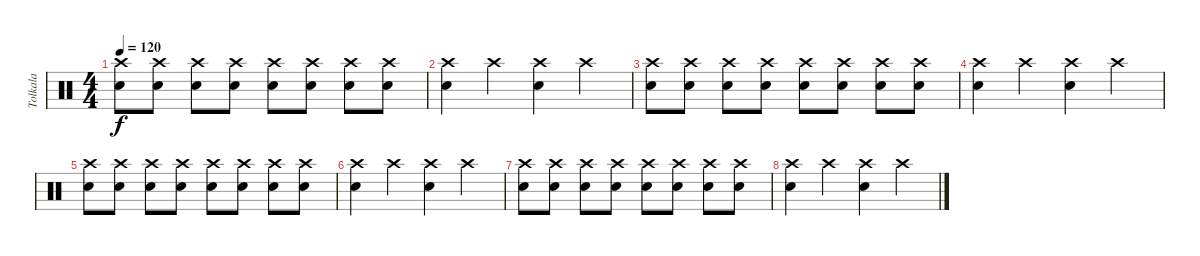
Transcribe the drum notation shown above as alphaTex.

\track ("Tolkala" "Tolkala") {instrument percussion}
\staff {score}
\articulation defaults
\ts (4 4)
\tempo 120
\clef neutral
\ks c
("Crash high (hit)" "Snare (hit) 2").8{dy f} ("Crash high (hit)" "Snare (hit) 2").8 ("Crash high (hit)" "Snare (hit) 2").8 ("Crash high (hit)" "Snare (hit) 2").8 ("Crash high (hit)" "Snare (hit) 2").8 ("Crash high (hit)" "Snare (hit) 2").8 ("Crash high (hit)" "Snare (hit) 2").8 ("Crash high (hit)" "Snare (hit) 2").8 |
("Crash high (hit)" "Snare (hit) 2").4 "Crash high (hit)".4 ("Crash high (hit)" "Snare (hit) 2").4 "Crash high (hit)".4 |
("Crash high (hit)" "Snare (hit) 2").8 ("Crash high (hit)" "Snare (hit) 2").8 ("Crash high (hit)" "Snare (hit) 2").8 ("Crash high (hit)" "Snare (hit) 2").8 ("Crash high (hit)" "Snare (hit) 2").8 ("Crash high (hit)" "Snare (hit) 2").8 ("Crash high (hit)" "Snare (hit) 2").8 ("Crash high (hit)" "Snare (hit) 2").8 |
("Crash high (hit)" "Snare (hit) 2").4 "Crash high (hit)".4 ("Crash high (hit)" "Snare (hit) 2").4 "Crash high (hit)".4 |
("Crash high (hit)" "Snare (hit) 2").8 ("Crash high (hit)" "Snare (hit) 2").8 ("Crash high (hit)" "Snare (hit) 2").8 ("Crash high (hit)" "Snare (hit) 2").8 ("Crash high (hit)" "Snare (hit) 2").8 ("Crash high (hit)" "Snare (hit) 2").8 ("Crash high (hit)" "Snare (hit) 2").8 ("Crash high (hit)" "Snare (hit) 2").8 |
("Crash high (hit)" "Snare (hit) 2").4 "Crash high (hit)".4 ("Crash high (hit)" "Snare (hit) 2").4 "Crash high (hit)".4 |
("Crash high (hit)" "Snare (hit) 2").8 ("Crash high (hit)" "Snare (hit) 2").8 ("Crash high (hit)" "Snare (hit) 2").8 ("Crash high (hit)" "Snare (hit) 2").8 ("Crash high (hit)" "Snare (hit) 2").8 ("Crash high (hit)" "Snare (hit) 2").8 ("Crash high (hit)" "Snare (hit) 2").8 ("Crash high (hit)" "Snare (hit) 2").8 |
("Crash high (hit)" "Snare (hit) 2").4 "Crash high (hit)".4 ("Crash high (hit)" "Snare (hit) 2").4 "Crash high (hit)".4
